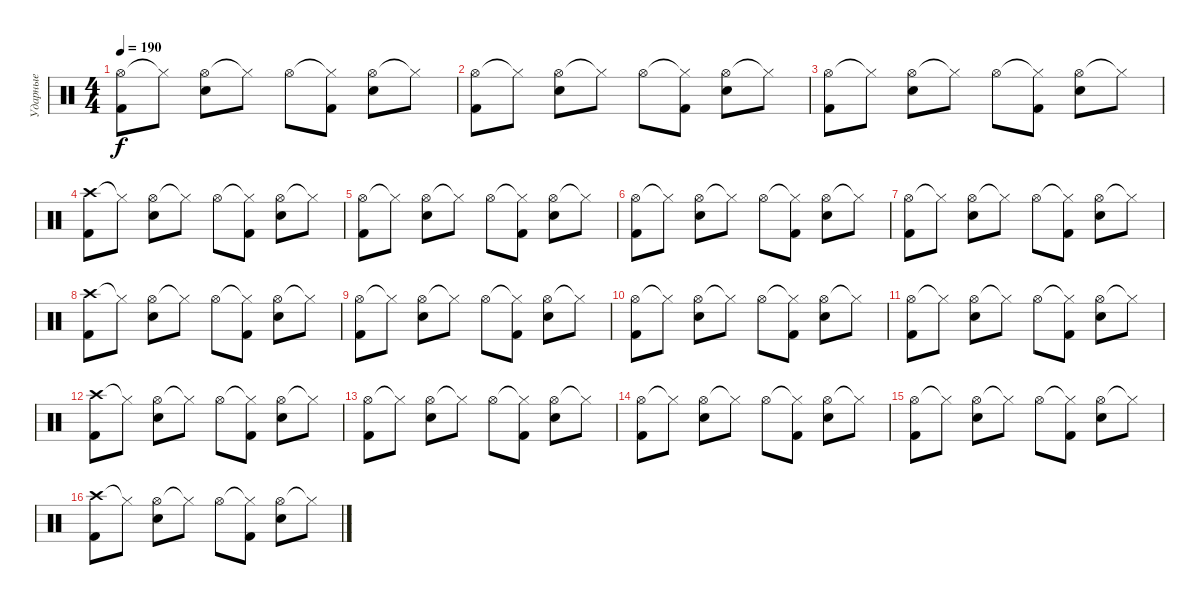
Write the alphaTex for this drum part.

\track ("Ударные" "Ударные") {instrument percussion}
\staff {score}
\articulation defaults
\ts (4 4)
\tempo 190
\clef neutral
\ks c
("Hi-Hat (open)" "Kick (hit) 2").8{dy f} "Hi-Hat (closed)"{t}.8 ("Hi-Hat (open)" "Snare (hit) 2").8 "Hi-Hat (closed)"{t}.8 "Hi-Hat (open)".8 ("Hi-Hat (closed)"{t} "Kick (hit) 2").8 ("Hi-Hat (open)" "Snare (hit) 2").8 "Hi-Hat (closed)"{t}.8 |
("Hi-Hat (open)" "Kick (hit) 2").8 "Hi-Hat (closed)"{t}.8 ("Hi-Hat (open)" "Snare (hit) 2").8 "Hi-Hat (closed)"{t}.8 "Hi-Hat (open)".8 ("Hi-Hat (closed)"{t} "Kick (hit) 2").8 ("Hi-Hat (open)" "Snare (hit) 2").8 "Hi-Hat (closed)"{t}.8 |
("Hi-Hat (open)" "Kick (hit) 2").8 "Hi-Hat (closed)"{t}.8 ("Hi-Hat (open)" "Snare (hit) 2").8 "Hi-Hat (closed)"{t}.8 "Hi-Hat (open)".8 ("Hi-Hat (closed)"{t} "Kick (hit) 2").8 ("Hi-Hat (open)" "Snare (hit) 2").8 "Hi-Hat (closed)"{t}.8 |
("Crash high (hit)" "Kick (hit) 2").8 "Hi-Hat (closed)"{t}.8 ("Hi-Hat (open)" "Snare (hit) 2").8 "Hi-Hat (closed)"{t}.8 "Hi-Hat (open)".8 ("Hi-Hat (closed)"{t} "Kick (hit) 2").8 ("Hi-Hat (open)" "Snare (hit) 2").8 "Hi-Hat (closed)"{t}.8 |
("Hi-Hat (open)" "Kick (hit) 2").8 "Hi-Hat (closed)"{t}.8 ("Hi-Hat (open)" "Snare (hit) 2").8 "Hi-Hat (closed)"{t}.8 "Hi-Hat (open)".8 ("Hi-Hat (closed)"{t} "Kick (hit) 2").8 ("Hi-Hat (open)" "Snare (hit) 2").8 "Hi-Hat (closed)"{t}.8 |
("Hi-Hat (open)" "Kick (hit) 2").8 "Hi-Hat (closed)"{t}.8 ("Hi-Hat (open)" "Snare (hit) 2").8 "Hi-Hat (closed)"{t}.8 "Hi-Hat (open)".8 ("Hi-Hat (closed)"{t} "Kick (hit) 2").8 ("Hi-Hat (open)" "Snare (hit) 2").8 "Hi-Hat (closed)"{t}.8 |
("Hi-Hat (open)" "Kick (hit) 2").8 "Hi-Hat (closed)"{t}.8 ("Hi-Hat (open)" "Snare (hit) 2").8 "Hi-Hat (closed)"{t}.8 "Hi-Hat (open)".8 ("Hi-Hat (closed)"{t} "Kick (hit) 2").8 ("Hi-Hat (open)" "Snare (hit) 2").8 "Hi-Hat (closed)"{t}.8 |
("Crash high (hit)" "Kick (hit) 2").8 "Hi-Hat (closed)"{t}.8 ("Hi-Hat (open)" "Snare (hit) 2").8 "Hi-Hat (closed)"{t}.8 "Hi-Hat (open)".8 ("Hi-Hat (closed)"{t} "Kick (hit) 2").8 ("Hi-Hat (open)" "Snare (hit) 2").8 "Hi-Hat (closed)"{t}.8 |
("Hi-Hat (open)" "Kick (hit) 2").8 "Hi-Hat (closed)"{t}.8 ("Hi-Hat (open)" "Snare (hit) 2").8 "Hi-Hat (closed)"{t}.8 "Hi-Hat (open)".8 ("Hi-Hat (closed)"{t} "Kick (hit) 2").8 ("Hi-Hat (open)" "Snare (hit) 2").8 "Hi-Hat (closed)"{t}.8 |
("Hi-Hat (open)" "Kick (hit) 2").8 "Hi-Hat (closed)"{t}.8 ("Hi-Hat (open)" "Snare (hit) 2").8 "Hi-Hat (closed)"{t}.8 "Hi-Hat (open)".8 ("Hi-Hat (closed)"{t} "Kick (hit) 2").8 ("Hi-Hat (open)" "Snare (hit) 2").8 "Hi-Hat (closed)"{t}.8 |
("Hi-Hat (open)" "Kick (hit) 2").8 "Hi-Hat (closed)"{t}.8 ("Hi-Hat (open)" "Snare (hit) 2").8 "Hi-Hat (closed)"{t}.8 "Hi-Hat (open)".8 ("Hi-Hat (closed)"{t} "Kick (hit) 2").8 ("Hi-Hat (open)" "Snare (hit) 2").8 "Hi-Hat (closed)"{t}.8 |
("Crash high (hit)" "Kick (hit) 2").8 "Hi-Hat (closed)"{t}.8 ("Hi-Hat (open)" "Snare (hit) 2").8 "Hi-Hat (closed)"{t}.8 "Hi-Hat (open)".8 ("Hi-Hat (closed)"{t} "Kick (hit) 2").8 ("Hi-Hat (open)" "Snare (hit) 2").8 "Hi-Hat (closed)"{t}.8 |
("Hi-Hat (open)" "Kick (hit) 2").8 "Hi-Hat (closed)"{t}.8 ("Hi-Hat (open)" "Snare (hit) 2").8 "Hi-Hat (closed)"{t}.8 "Hi-Hat (open)".8 ("Hi-Hat (closed)"{t} "Kick (hit) 2").8 ("Hi-Hat (open)" "Snare (hit) 2").8 "Hi-Hat (closed)"{t}.8 |
("Hi-Hat (open)" "Kick (hit) 2").8 "Hi-Hat (closed)"{t}.8 ("Hi-Hat (open)" "Snare (hit) 2").8 "Hi-Hat (closed)"{t}.8 "Hi-Hat (open)".8 ("Hi-Hat (closed)"{t} "Kick (hit) 2").8 ("Hi-Hat (open)" "Snare (hit) 2").8 "Hi-Hat (closed)"{t}.8 |
("Hi-Hat (open)" "Kick (hit) 2").8 "Hi-Hat (closed)"{t}.8 ("Hi-Hat (open)" "Snare (hit) 2").8 "Hi-Hat (closed)"{t}.8 "Hi-Hat (open)".8 ("Hi-Hat (closed)"{t} "Kick (hit) 2").8 ("Hi-Hat (open)" "Snare (hit) 2").8 "Hi-Hat (closed)"{t}.8 |
("Crash high (hit)" "Kick (hit) 2").8 "Hi-Hat (closed)"{t}.8 ("Hi-Hat (open)" "Snare (hit) 2").8 "Hi-Hat (closed)"{t}.8 "Hi-Hat (open)".8 ("Hi-Hat (closed)"{t} "Kick (hit) 2").8 ("Hi-Hat (open)" "Snare (hit) 2").8 "Hi-Hat (closed)"{t}.8
